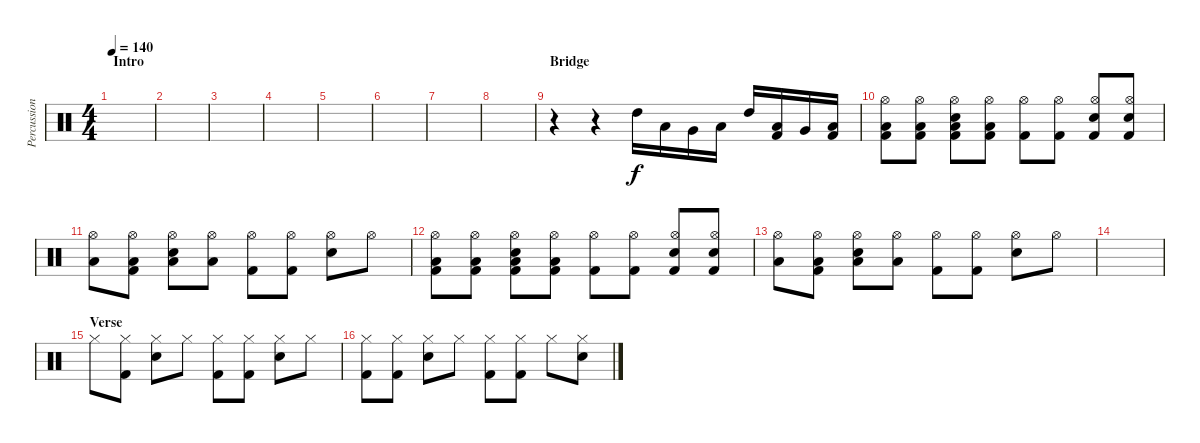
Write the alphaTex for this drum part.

\track ("Percussion" "Percussion") {instrument percussion}
\staff {score}
\articulation defaults
\ts (4 4)
\section ("" "Intro")
\tempo 140
\clef neutral
\ks c
|
|
|
|
|
|
|
|
\section ("" "Bridge")
r.4 r.4 "High Tom (hit)".16 "Low Tom (hit)".16 "Very Low Tom (hit)".16 "Low Floor Tom (hit)".16 "High Tom (hit)".16 ("Low Tom (hit)" "Kick (hit) 2").16 "Very Low Tom (hit)".16 ("Low Floor Tom (hit)" "Kick (hit) 2").16 |
("Low Floor Tom (hit)" "Hi-Hat (open)" "Kick (hit) 2").8 ("Low Floor Tom (hit)" "Hi-Hat (open)" "Kick (hit) 2").8 ("Low Floor Tom (hit)" "Hi-Hat (open)" "Snare (hit) 2" "Kick (hit) 2").8 ("Low Floor Tom (hit)" "Hi-Hat (open)" "Kick (hit) 2").8 ("Hi-Hat (open)" "Kick (hit) 2").8 ("Hi-Hat (open)" "Kick (hit) 2").8 ("Hi-Hat (open)" "Snare (hit) 2" "Kick (hit) 2").8 ("Hi-Hat (open)" "Snare (hit) 2" "Kick (hit) 2").8 |
("Low Tom (hit)" "Hi-Hat (open)").8 ("Low Tom (hit)" "Hi-Hat (open)" "Kick (hit) 2").8 ("Low Tom (hit)" "Hi-Hat (open)" "Snare (hit) 2").8 ("Low Tom (hit)" "Hi-Hat (open)").8 ("Hi-Hat (open)" "Kick (hit) 2").8 ("Hi-Hat (open)" "Kick (hit) 2").8 ("Hi-Hat (open)" "Snare (hit) 2").8 "Hi-Hat (open)".8 |
("Low Floor Tom (hit)" "Hi-Hat (open)" "Kick (hit) 2").8 ("Low Floor Tom (hit)" "Hi-Hat (open)" "Kick (hit) 2").8 ("Low Floor Tom (hit)" "Hi-Hat (open)" "Snare (hit) 2" "Kick (hit) 2").8 ("Low Floor Tom (hit)" "Hi-Hat (open)" "Kick (hit) 2").8 ("Hi-Hat (open)" "Kick (hit) 2").8 ("Hi-Hat (open)" "Kick (hit) 2").8 ("Hi-Hat (open)" "Snare (hit) 2" "Kick (hit) 2").8 ("Hi-Hat (open)" "Snare (hit) 2" "Kick (hit) 2").8 |
("Low Tom (hit)" "Hi-Hat (open)").8 ("Low Tom (hit)" "Hi-Hat (open)" "Kick (hit) 2").8 ("Low Tom (hit)" "Hi-Hat (open)" "Snare (hit) 2").8 ("Low Tom (hit)" "Hi-Hat (open)").8 ("Hi-Hat (open)" "Kick (hit) 2").8 ("Hi-Hat (open)" "Kick (hit) 2").8 ("Hi-Hat (open)" "Snare (hit) 2").8 "Hi-Hat (open)".8 |
|
\section ("" "Verse")
"Hi-Hat (closed)".8 ("Hi-Hat (closed)" "Kick (hit) 2").8 ("Hi-Hat (closed)" "Snare (hit) 2").8 "Hi-Hat (closed)".8 ("Hi-Hat (closed)" "Kick (hit) 2").8 ("Hi-Hat (closed)" "Kick (hit) 2").8 ("Hi-Hat (closed)" "Snare (hit) 2").8 "Hi-Hat (closed)".8 |
("Hi-Hat (closed)" "Kick (hit) 2").8 ("Hi-Hat (closed)" "Kick (hit) 2").8 ("Hi-Hat (closed)" "Snare (hit) 2").8 "Hi-Hat (closed)".8 ("Hi-Hat (closed)" "Kick (hit) 2").8 ("Hi-Hat (closed)" "Kick (hit) 2").8 "Hi-Hat (closed)".8 ("Hi-Hat (closed)" "Snare (hit) 2").8
